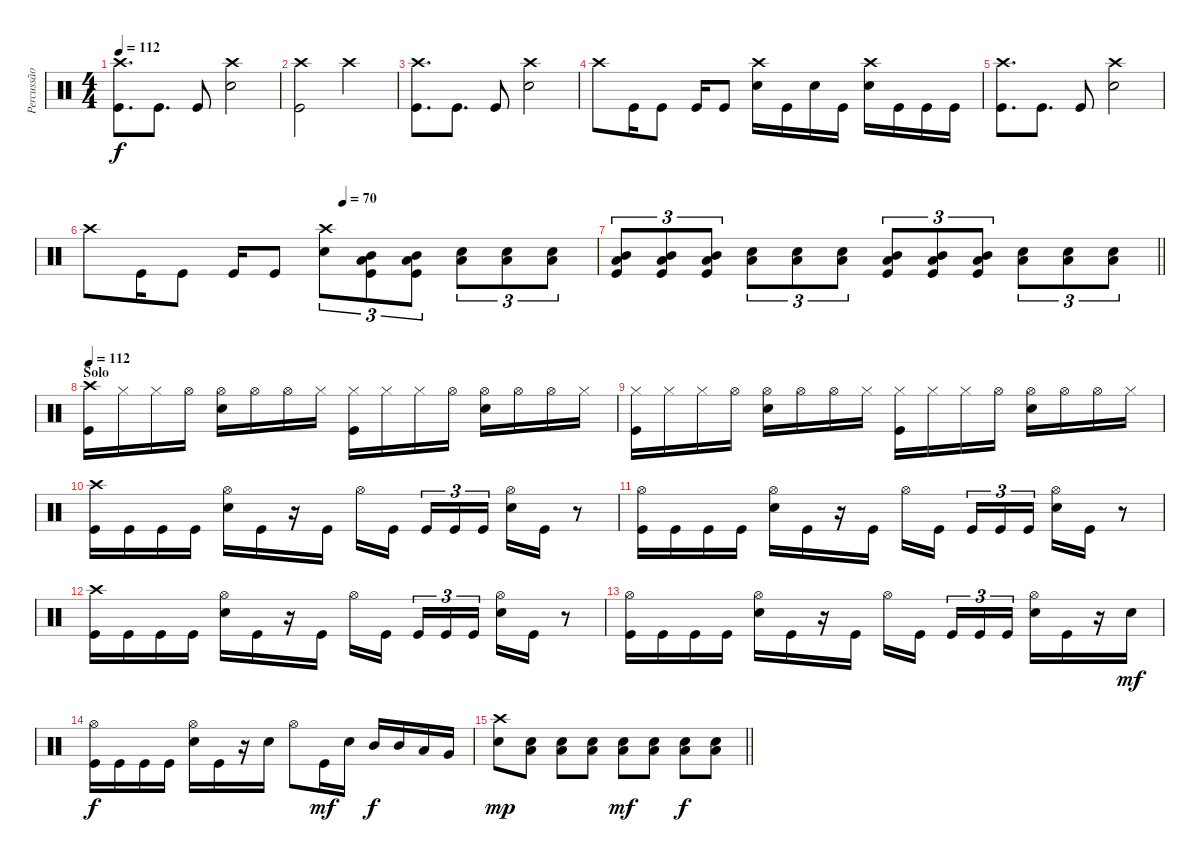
\track ("Percussão" "Percussão") {instrument percussion}
\staff {score}
\articulation defaults
\ts (4 4)
\tempo 112
\clef neutral
\ks c
("Crash high (hit)" "Kick (hit)").8{d dy f} "Kick (hit)".8{d} "Kick (hit)".8 ("Crash high (hit)" "Electric Snare (hit)").2 |
("Crash high (hit)" "Kick (hit)").2 "Crash high (hit)".2 |
("Crash high (hit)" "Kick (hit)").8{d} "Kick (hit)".8{d} "Kick (hit)".8 ("Crash high (hit)" "Electric Snare (hit)").2 |
"Crash high (hit)".8 "Kick (hit)".16 "Kick (hit)".8 "Kick (hit)".16 "Kick (hit)".8 ("Crash high (hit)" "Electric Snare (hit)").16 "Kick (hit)".16 "Electric Snare (hit)".16 "Kick (hit)".16 ("Crash high (hit)" "Electric Snare (hit)").16 "Kick (hit)".16 "Kick (hit)".16 "Kick (hit)".16 |
("Crash high (hit)" "Kick (hit)").8{d} "Kick (hit)".8{d} "Kick (hit)".8 ("Crash high (hit)" "Electric Snare (hit)").2 |
\tempo (70 0.5)
"Crash high (hit)".8 "Kick (hit)".16 "Kick (hit)".8 "Kick (hit)".16 "Kick (hit)".8 ("Crash high (hit)" "Electric Snare (hit)").8{tu (3 2)} ("Mid Tom (hit)" "Low Floor Tom (hit)" "Kick (hit)").8{tu (3 2)} ("Mid Tom (hit)" "Low Floor Tom (hit)" "Kick (hit)").8{tu (3 2)} ("Low Tom (hit)" "Electric Snare (hit)").8{tu (3 2)} ("Low Tom (hit)" "Electric Snare (hit)").8{tu (3 2)} ("Low Tom (hit)" "Electric Snare (hit)").8{tu (3 2)} |
\barLineRight lightlight
("Mid Tom (hit)" "Low Floor Tom (hit)" "Kick (hit)").8{tu (3 2)} ("Mid Tom (hit)" "Low Floor Tom (hit)" "Kick (hit)").8{tu (3 2)} ("Mid Tom (hit)" "Low Floor Tom (hit)" "Kick (hit)").8{tu (3 2)} ("Low Tom (hit)" "Electric Snare (hit)").8{tu (3 2)} ("Low Tom (hit)" "Electric Snare (hit)").8{tu (3 2)} ("Low Tom (hit)" "Electric Snare (hit)").8{tu (3 2)} ("Mid Tom (hit)" "Low Floor Tom (hit)" "Kick (hit)").8{tu (3 2)} ("Mid Tom (hit)" "Low Floor Tom (hit)" "Kick (hit)").8{tu (3 2)} ("Mid Tom (hit)" "Low Floor Tom (hit)" "Kick (hit)").8{tu (3 2)} ("Low Tom (hit)" "Electric Snare (hit)").8{tu (3 2)} ("Low Tom (hit)" "Electric Snare (hit)").8{tu (3 2)} ("Low Tom (hit)" "Electric Snare (hit)").8{tu (3 2)} |
\section ("" "Solo")
\tempo 112
("Crash high (hit)" "Kick (hit)").16 "Hi-Hat (closed)".16 "Hi-Hat (closed)".16 "Hi-Hat (open)".16 ("Hi-Hat (open)" "Electric Snare (hit)").16 "Hi-Hat (open)".16 "Hi-Hat (open)".16 "Hi-Hat (closed)".16 ("Hi-Hat (closed)" "Kick (hit)").16 "Hi-Hat (closed)".16 "Hi-Hat (closed)".16 "Hi-Hat (open)".16 ("Hi-Hat (open)" "Electric Snare (hit)").16 "Hi-Hat (open)".16 "Hi-Hat (open)".16 "Hi-Hat (closed)".16 |
("Hi-Hat (closed)" "Kick (hit)").16 "Hi-Hat (closed)".16 "Hi-Hat (closed)".16 "Hi-Hat (open)".16 ("Hi-Hat (open)" "Electric Snare (hit)").16 "Hi-Hat (open)".16 "Hi-Hat (open)".16 "Hi-Hat (closed)".16 ("Hi-Hat (closed)" "Kick (hit)").16 "Hi-Hat (closed)".16 "Hi-Hat (closed)".16 "Hi-Hat (open)".16 ("Hi-Hat (open)" "Electric Snare (hit)").16 "Hi-Hat (open)".16 "Hi-Hat (open)".16 "Hi-Hat (closed)".16 |
("Crash high (hit)" "Kick (hit)").16 "Kick (hit)".16 "Kick (hit)".16 "Kick (hit)".16 ("Hi-Hat (open)" "Electric Snare (hit)").16 "Kick (hit)".16 r.16 "Kick (hit)".16 "Hi-Hat (open)".16 "Kick (hit)".16{beam splitsecondary} "Kick (hit)".16{tu (3 2)} "Kick (hit)".16{tu (3 2)} "Kick (hit)".16{tu (3 2)} ("Hi-Hat (open)" "Electric Snare (hit)").16 "Kick (hit)".16 r.8 |
("Hi-Hat (open)" "Kick (hit)").16 "Kick (hit)".16 "Kick (hit)".16 "Kick (hit)".16 ("Hi-Hat (open)" "Electric Snare (hit)").16 "Kick (hit)".16 r.16 "Kick (hit)".16 "Hi-Hat (open)".16 "Kick (hit)".16{beam splitsecondary} "Kick (hit)".16{tu (3 2)} "Kick (hit)".16{tu (3 2)} "Kick (hit)".16{tu (3 2)} ("Hi-Hat (open)" "Electric Snare (hit)").16 "Kick (hit)".16 r.8 |
("Crash high (hit)" "Kick (hit)").16 "Kick (hit)".16 "Kick (hit)".16 "Kick (hit)".16 ("Hi-Hat (open)" "Electric Snare (hit)").16 "Kick (hit)".16 r.16 "Kick (hit)".16 "Hi-Hat (open)".16 "Kick (hit)".16{beam splitsecondary} "Kick (hit)".16{tu (3 2)} "Kick (hit)".16{tu (3 2)} "Kick (hit)".16{tu (3 2)} ("Hi-Hat (open)" "Electric Snare (hit)").16 "Kick (hit)".16 r.8 |
("Hi-Hat (open)" "Kick (hit)").16 "Kick (hit)".16 "Kick (hit)".16 "Kick (hit)".16 ("Hi-Hat (open)" "Electric Snare (hit)").16 "Kick (hit)".16 r.16 "Kick (hit)".16 "Hi-Hat (open)".16 "Kick (hit)".16{beam splitsecondary} "Kick (hit)".16{tu (3 2)} "Kick (hit)".16{tu (3 2)} "Kick (hit)".16{tu (3 2)} ("Hi-Hat (open)" "Electric Snare (hit)").16 "Kick (hit)".16 r.16 "Electric Snare (hit)".16{dy mf} |
("Hi-Hat (open)" "Kick (hit)").16{dy f} "Kick (hit)".16 "Kick (hit)".16 "Kick (hit)".16 ("Hi-Hat (open)" "Electric Snare (hit)").16 "Kick (hit)".16 r.16 "Electric Snare (hit)".16 "Hi-Hat (open)".8 "Kick (hit)".16{dy mf} "Electric Snare (hit)".16 "Mid Tom (hit)".16{dy f} "Mid Tom (hit)".16 "Low Tom (hit)".16 "Very Low Tom (hit)".16 |
\barLineRight lightlight
("Crash high (hit)" "Electric Snare (hit)").8{dy mp} ("Low Floor Tom (hit)" "Electric Snare (hit)").8 ("Low Floor Tom (hit)" "Electric Snare (hit)").8 ("Low Floor Tom (hit)" "Electric Snare (hit)").8 ("Low Floor Tom (hit)" "Electric Snare (hit)").8{dy mf} ("Low Floor Tom (hit)" "Electric Snare (hit)").8 ("Low Floor Tom (hit)" "Electric Snare (hit)").8{dy f} ("Low Floor Tom (hit)" "Electric Snare (hit)").8
